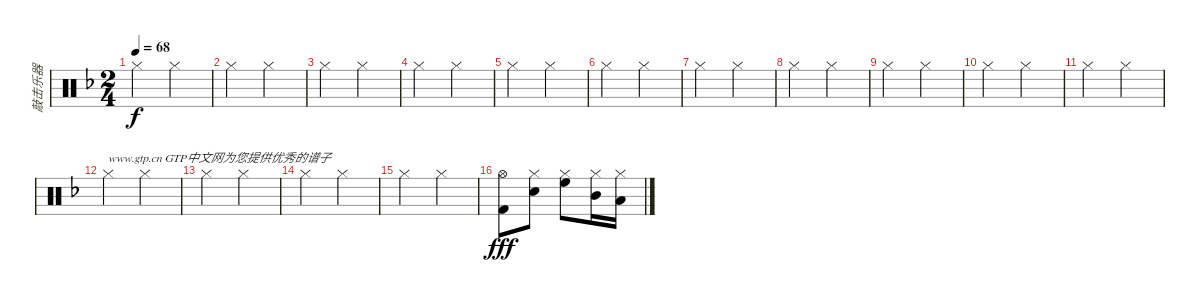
\track ("敲击乐器" "敲击乐器") {instrument percussion}
\staff {score}
\articulation defaults
\ts (2 4)
\tempo 68
\clef neutral
\ks f "Hi-Hat (closed)".4{dy f} "Hi-Hat (closed)".4
|
"Hi-Hat (closed)".4 "Hi-Hat (closed)".4 |
"Hi-Hat (closed)".4 "Hi-Hat (closed)".4 |
"Hi-Hat (closed)".4 "Hi-Hat (closed)".4 |
"Hi-Hat (closed)".4 "Hi-Hat (closed)".4 |
"Hi-Hat (closed)".4 "Hi-Hat (closed)".4 |
"Hi-Hat (closed)".4 "Hi-Hat (closed)".4 |
"Hi-Hat (closed)".4 "Hi-Hat (closed)".4 |
"Hi-Hat (closed)".4 "Hi-Hat (closed)".4 |
"Hi-Hat (closed)".4 "Hi-Hat (closed)".4 |
"Hi-Hat (closed)".4 "Hi-Hat (closed)".4 |
"Hi-Hat (closed)".4{txt "www.gtp.cn GTP中文网为您提供优秀的谱子"} "Hi-Hat (closed)".4 |
"Hi-Hat (closed)".4 "Hi-Hat (closed)".4 |
"Hi-Hat (closed)".4 "Hi-Hat (closed)".4 |
"Hi-Hat (closed)".4 "Hi-Hat (closed)".4 |
("Hi-Hat (open)" "Kick (hit) 2").8{dy fff} ("Electric Snare (hit)" "Hi-Hat (closed)").8 ("High Floor Tom (hit)" "Hi-Hat (closed)").8 ("Mid Tom (hit)" "Hi-Hat (closed)").16 ("Low Tom (hit)" "Hi-Hat (closed)").16
